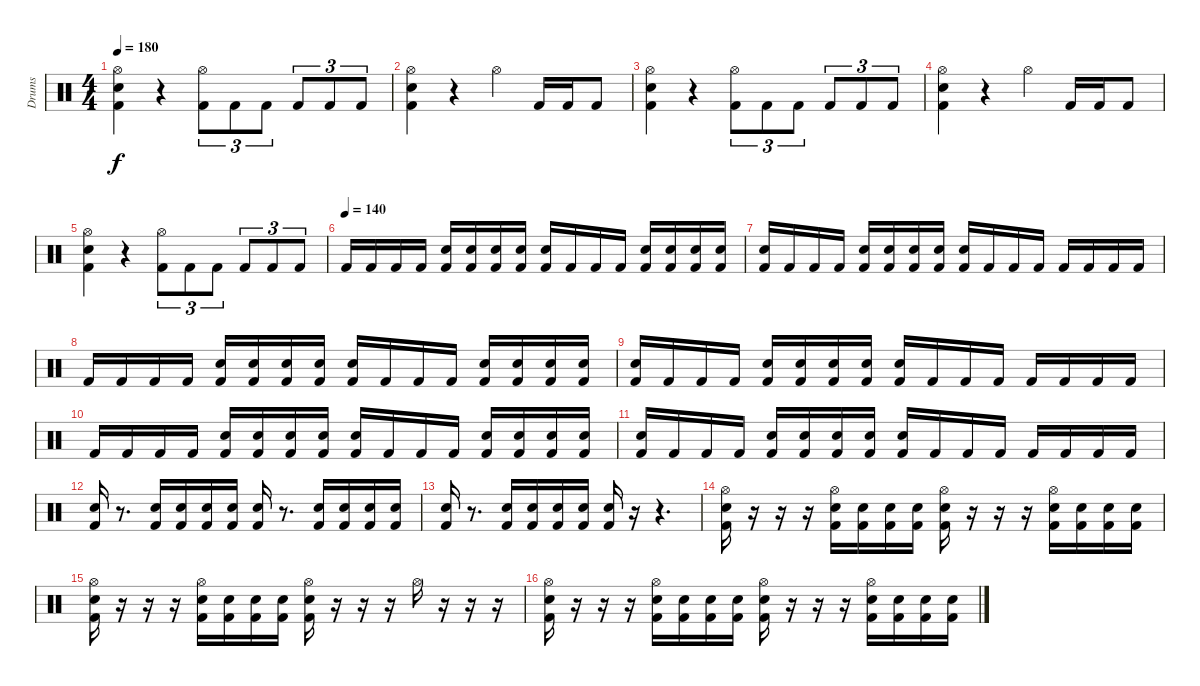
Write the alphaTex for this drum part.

\track ("Drums" "Drums") {instrument percussion}
\staff {score}
\articulation defaults
\ts (4 4)
\tempo 180
\clef neutral
\ks c
("Hi-Hat (open)" "Snare (hit) 2" "Kick (hit) 2").4{dy f} r.4 ("Hi-Hat (open)" "Kick (hit) 2").8{tu (3 2)} "Kick (hit) 2".8{tu (3 2)} "Kick (hit) 2".8{tu (3 2)} "Kick (hit) 2".8{tu (3 2)} "Kick (hit) 2".8{tu (3 2)} "Kick (hit) 2".8{tu (3 2)} |
("Hi-Hat (open)" "Snare (hit) 2" "Kick (hit) 2").4 r.4 "Hi-Hat (open)".4 "Kick (hit) 2".16 "Kick (hit) 2".16 "Kick (hit) 2".8 |
("Hi-Hat (open)" "Snare (hit) 2" "Kick (hit) 2").4 r.4 ("Hi-Hat (open)" "Kick (hit) 2").8{tu (3 2)} "Kick (hit) 2".8{tu (3 2)} "Kick (hit) 2".8{tu (3 2)} "Kick (hit) 2".8{tu (3 2)} "Kick (hit) 2".8{tu (3 2)} "Kick (hit) 2".8{tu (3 2)} |
("Hi-Hat (open)" "Snare (hit) 2" "Kick (hit) 2").4 r.4 "Hi-Hat (open)".4 "Kick (hit) 2".16 "Kick (hit) 2".16 "Kick (hit) 2".8 |
("Hi-Hat (open)" "Snare (hit) 2" "Kick (hit) 2").4 r.4 ("Hi-Hat (open)" "Kick (hit) 2").8{tu (3 2)} "Kick (hit) 2".8{tu (3 2)} "Kick (hit) 2".8{tu (3 2)} "Kick (hit) 2".8{tu (3 2)} "Kick (hit) 2".8{tu (3 2)} "Kick (hit) 2".8{tu (3 2)} |
\tempo (140)
"Kick (hit) 2".16 "Kick (hit) 2".16 "Kick (hit) 2".16 "Kick (hit) 2".16 ("Snare (hit) 2" "Kick (hit) 2").16 ("Snare (hit) 2" "Kick (hit) 2").16 ("Snare (hit) 2" "Kick (hit) 2").16 ("Snare (hit) 2" "Kick (hit) 2").16 ("Snare (hit) 2" "Kick (hit) 2").16 "Kick (hit) 2".16 "Kick (hit) 2".16 "Kick (hit) 2".16 ("Snare (hit) 2" "Kick (hit) 2").16 ("Snare (hit) 2" "Kick (hit) 2").16 ("Snare (hit) 2" "Kick (hit) 2").16 ("Snare (hit) 2" "Kick (hit) 2").16 |
("Snare (hit) 2" "Kick (hit) 2").16 "Kick (hit) 2".16 "Kick (hit) 2".16 "Kick (hit) 2".16 ("Snare (hit) 2" "Kick (hit) 2").16 ("Snare (hit) 2" "Kick (hit) 2").16 ("Snare (hit) 2" "Kick (hit) 2").16 ("Snare (hit) 2" "Kick (hit) 2").16 ("Snare (hit) 2" "Kick (hit) 2").16 "Kick (hit) 2".16 "Kick (hit) 2".16 "Kick (hit) 2".16 "Kick (hit) 2".16 "Kick (hit) 2".16 "Kick (hit) 2".16 "Kick (hit) 2".16 |
"Kick (hit) 2".16 "Kick (hit) 2".16 "Kick (hit) 2".16 "Kick (hit) 2".16 ("Snare (hit) 2" "Kick (hit) 2").16 ("Snare (hit) 2" "Kick (hit) 2").16 ("Snare (hit) 2" "Kick (hit) 2").16 ("Snare (hit) 2" "Kick (hit) 2").16 ("Snare (hit) 2" "Kick (hit) 2").16 "Kick (hit) 2".16 "Kick (hit) 2".16 "Kick (hit) 2".16 ("Snare (hit) 2" "Kick (hit) 2").16 ("Snare (hit) 2" "Kick (hit) 2").16 ("Snare (hit) 2" "Kick (hit) 2").16 ("Snare (hit) 2" "Kick (hit) 2").16 |
("Snare (hit) 2" "Kick (hit) 2").16 "Kick (hit) 2".16 "Kick (hit) 2".16 "Kick (hit) 2".16 ("Snare (hit) 2" "Kick (hit) 2").16 ("Snare (hit) 2" "Kick (hit) 2").16 ("Snare (hit) 2" "Kick (hit) 2").16 ("Snare (hit) 2" "Kick (hit) 2").16 ("Snare (hit) 2" "Kick (hit) 2").16 "Kick (hit) 2".16 "Kick (hit) 2".16 "Kick (hit) 2".16 "Kick (hit) 2".16 "Kick (hit) 2".16 "Kick (hit) 2".16 "Kick (hit) 2".16 |
"Kick (hit) 2".16 "Kick (hit) 2".16 "Kick (hit) 2".16 "Kick (hit) 2".16 ("Snare (hit) 2" "Kick (hit) 2").16 ("Snare (hit) 2" "Kick (hit) 2").16 ("Snare (hit) 2" "Kick (hit) 2").16 ("Snare (hit) 2" "Kick (hit) 2").16 ("Snare (hit) 2" "Kick (hit) 2").16 "Kick (hit) 2".16 "Kick (hit) 2".16 "Kick (hit) 2".16 ("Snare (hit) 2" "Kick (hit) 2").16 ("Snare (hit) 2" "Kick (hit) 2").16 ("Snare (hit) 2" "Kick (hit) 2").16 ("Snare (hit) 2" "Kick (hit) 2").16 |
("Snare (hit) 2" "Kick (hit) 2").16 "Kick (hit) 2".16 "Kick (hit) 2".16 "Kick (hit) 2".16 ("Snare (hit) 2" "Kick (hit) 2").16 ("Snare (hit) 2" "Kick (hit) 2").16 ("Snare (hit) 2" "Kick (hit) 2").16 ("Snare (hit) 2" "Kick (hit) 2").16 ("Snare (hit) 2" "Kick (hit) 2").16 "Kick (hit) 2".16 "Kick (hit) 2".16 "Kick (hit) 2".16 "Kick (hit) 2".16 "Kick (hit) 2".16 "Kick (hit) 2".16 "Kick (hit) 2".16 |
("Snare (hit) 2" "Kick (hit) 2").16 r.8{d} ("Snare (hit) 2" "Kick (hit) 2").16 ("Snare (hit) 2" "Kick (hit) 2").16 ("Snare (hit) 2" "Kick (hit) 2").16 ("Snare (hit) 2" "Kick (hit) 2").16 ("Snare (hit) 2" "Kick (hit) 2").16 r.8{d} ("Snare (hit) 2" "Kick (hit) 2").16 ("Snare (hit) 2" "Kick (hit) 2").16 ("Snare (hit) 2" "Kick (hit) 2").16 ("Snare (hit) 2" "Kick (hit) 2").16 |
("Snare (hit) 2" "Kick (hit) 2").16 r.8{d} ("Snare (hit) 2" "Kick (hit) 2").16 ("Snare (hit) 2" "Kick (hit) 2").16 ("Snare (hit) 2" "Kick (hit) 2").16 ("Snare (hit) 2" "Kick (hit) 2").16 ("Snare (hit) 2" "Kick (hit) 2").16 r.16 r.4{d} |
("Hi-Hat (open)" "Snare (hit) 2" "Kick (hit) 2").16 r.16 r.16 r.16 ("Hi-Hat (open)" "Snare (hit) 2" "Kick (hit) 2").16 ("Snare (hit) 2" "Kick (hit) 2").16 ("Snare (hit) 2" "Kick (hit) 2").16 ("Snare (hit) 2" "Kick (hit) 2").16 ("Hi-Hat (open)" "Snare (hit) 2" "Kick (hit) 2").16 r.16 r.16 r.16 ("Hi-Hat (open)" "Snare (hit) 2" "Kick (hit) 2").16 ("Snare (hit) 2" "Kick (hit) 2").16 ("Snare (hit) 2" "Kick (hit) 2").16 ("Snare (hit) 2" "Kick (hit) 2").16 |
("Hi-Hat (open)" "Snare (hit) 2" "Kick (hit) 2").16 r.16 r.16 r.16 ("Hi-Hat (open)" "Snare (hit) 2" "Kick (hit) 2").16 ("Snare (hit) 2" "Kick (hit) 2").16 ("Snare (hit) 2" "Kick (hit) 2").16 ("Snare (hit) 2" "Kick (hit) 2").16 ("Hi-Hat (open)" "Snare (hit) 2" "Kick (hit) 2").16 r.16 r.16 r.16 "Hi-Hat (open)".16 r.16 r.16 r.16 |
("Hi-Hat (open)" "Snare (hit) 2" "Kick (hit) 2").16 r.16 r.16 r.16 ("Hi-Hat (open)" "Snare (hit) 2" "Kick (hit) 2").16 ("Snare (hit) 2" "Kick (hit) 2").16 ("Snare (hit) 2" "Kick (hit) 2").16 ("Snare (hit) 2" "Kick (hit) 2").16 ("Hi-Hat (open)" "Snare (hit) 2" "Kick (hit) 2").16 r.16 r.16 r.16 ("Hi-Hat (open)" "Snare (hit) 2" "Kick (hit) 2").16 ("Snare (hit) 2" "Kick (hit) 2").16 ("Snare (hit) 2" "Kick (hit) 2").16 ("Snare (hit) 2" "Kick (hit) 2").16
